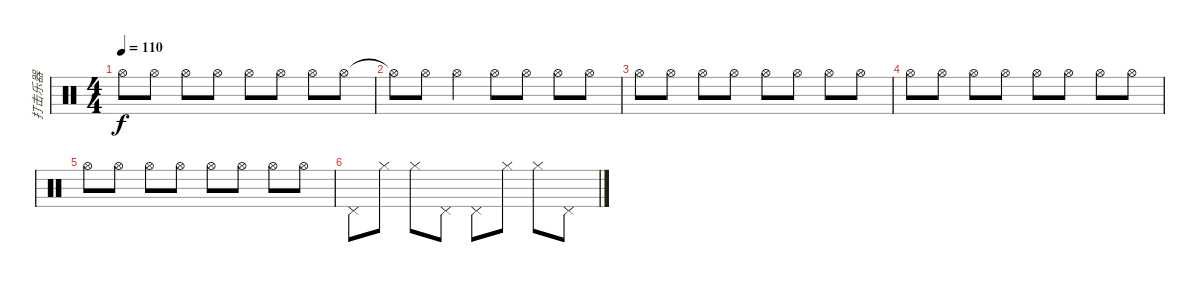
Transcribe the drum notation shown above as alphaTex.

\track ("打击乐器" "打击乐器") {instrument percussion}
\staff {score}
\articulation defaults
\ts (4 4)
\tempo 110
\clef neutral
\ks c "Hi-Hat (open)".8{dy f} "Hi-Hat (open)".8 "Hi-Hat (open)".8 "Hi-Hat (open)".8 "Hi-Hat (open)".8 "Hi-Hat (open)".8 "Hi-Hat (open)".8 "Hi-Hat (open)".8
|
"Hi-Hat (open)"{t}.8 "Hi-Hat (open)".8 "Hi-Hat (open)".4 "Hi-Hat (open)".8 "Hi-Hat (open)".8 "Hi-Hat (open)".8 "Hi-Hat (open)".8 |
"Hi-Hat (open)".8 "Hi-Hat (open)".8 "Hi-Hat (open)".8 "Hi-Hat (open)".8 "Hi-Hat (open)".8 "Hi-Hat (open)".8 "Hi-Hat (open)".8 "Hi-Hat (open)".8 |
"Hi-Hat (open)".8 "Hi-Hat (open)".8 "Hi-Hat (open)".8 "Hi-Hat (open)".8 "Hi-Hat (open)".8 "Hi-Hat (open)".8 "Hi-Hat (open)".8 "Hi-Hat (open)".8 |
"Hi-Hat (open)".8 "Hi-Hat (open)".8 "Hi-Hat (open)".8 "Hi-Hat (open)".8 "Hi-Hat (open)".8 "Hi-Hat (open)".8 "Hi-Hat (open)".8 "Hi-Hat (open)".8 |
"Pedal Hi-Hat (hit)".8 "Hi-Hat (closed)".8 "Hi-Hat (closed)".8 "Pedal Hi-Hat (hit)".8 "Pedal Hi-Hat (hit)".8 "Hi-Hat (closed)".8 "Hi-Hat (closed)".8 "Pedal Hi-Hat (hit)".8
